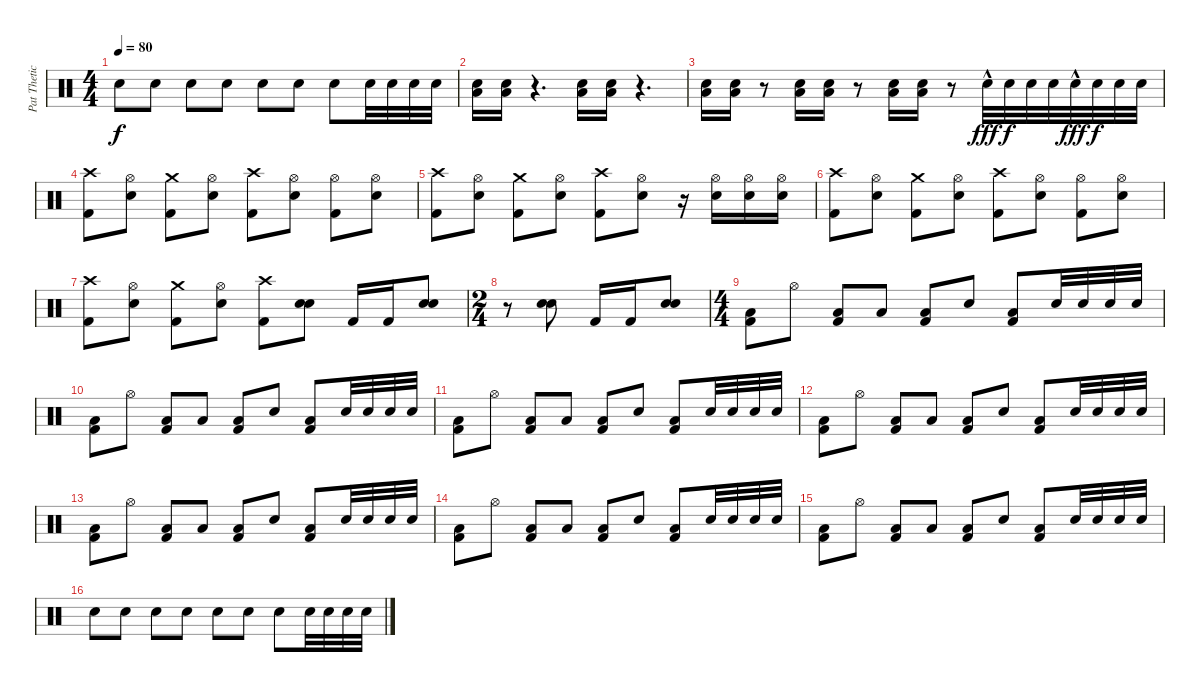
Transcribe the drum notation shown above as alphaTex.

\track ("Pat Thetic" "Pat Thetic") {instrument percussion}
\staff {score}
\articulation defaults
\ts (4 4)
\tempo 80
\clef neutral
\ks c "Electric Snare (hit)".8{dy f} "Electric Snare (hit)".8 "Electric Snare (hit)".8 "Electric Snare (hit)".8 "Electric Snare (hit)".8 "Electric Snare (hit)".8 "Electric Snare (hit)".8 "Electric Snare (hit)".32 "Electric Snare (hit)".32 "Electric Snare (hit)".32 "Electric Snare (hit)".32
|
("Electric Snare (hit)" "Low Floor Tom (hit)").16 ("Electric Snare (hit)" "Low Floor Tom (hit)").16 r.4{d} ("Electric Snare (hit)" "Low Floor Tom (hit)").16 ("Electric Snare (hit)" "Low Floor Tom (hit)").16 r.4{d} |
("Electric Snare (hit)" "Low Floor Tom (hit)").16 ("Electric Snare (hit)" "Low Floor Tom (hit)").16 r.8 ("Electric Snare (hit)" "Low Floor Tom (hit)").16 ("Electric Snare (hit)" "Low Floor Tom (hit)").16 r.8 ("Electric Snare (hit)" "Low Floor Tom (hit)").16 ("Electric Snare (hit)" "Low Floor Tom (hit)").16 r.8 "Electric Snare (hit)"{hac}.32{dy fff} "Electric Snare (hit)".32{dy f} "Electric Snare (hit)".32 "Electric Snare (hit)".32 "Electric Snare (hit)"{hac}.32{dy fff} "Electric Snare (hit)".32{dy f} "Electric Snare (hit)".32 "Electric Snare (hit)".32 |
("Crash high (hit)" "Kick (hit) 2").8 ("Hi-Hat (open)" "Electric Snare (hit)").8 ("Crash medium (hit)" "Kick (hit) 2").8 ("Hi-Hat (open)" "Electric Snare (hit)").8 ("Crash high (hit)" "Kick (hit) 2").8 ("Hi-Hat (open)" "Electric Snare (hit)").8 ("Hi-Hat (open)" "Kick (hit) 2").8 ("Hi-Hat (open)" "Electric Snare (hit)").8 |
("Crash high (hit)" "Kick (hit) 2").8 ("Hi-Hat (open)" "Electric Snare (hit)").8 ("Crash medium (hit)" "Kick (hit) 2").8 ("Hi-Hat (open)" "Electric Snare (hit)").8 ("Crash high (hit)" "Kick (hit) 2").8 ("Hi-Hat (open)" "Electric Snare (hit)").8 r.16 ("Hi-Hat (open)" "Electric Snare (hit)").16 ("Hi-Hat (open)" "Electric Snare (hit)").16 ("Hi-Hat (open)" "Electric Snare (hit)").16 |
("Crash high (hit)" "Kick (hit) 2").8 ("Hi-Hat (open)" "Electric Snare (hit)").8 ("Crash medium (hit)" "Kick (hit) 2").8 ("Hi-Hat (open)" "Electric Snare (hit)").8 ("Crash high (hit)" "Kick (hit) 2").8 ("Hi-Hat (open)" "Electric Snare (hit)").8 ("Hi-Hat (open)" "Kick (hit) 2").8 ("Hi-Hat (open)" "Electric Snare (hit)").8 |
("Crash high (hit)" "Kick (hit) 2").8 ("Hi-Hat (open)" "Electric Snare (hit)").8 ("Crash medium (hit)" "Kick (hit) 2").8 ("Hi-Hat (open)" "Electric Snare (hit)").8 ("Crash high (hit)" "Kick (hit) 2").8 ("Electric Snare (hit)" "Electric Snare (hit)").8 "Kick (hit) 2".16 "Kick (hit) 2".16 ("Electric Snare (hit)" "Electric Snare (hit)").8 |
\ts (2 4)
r.8 ("Electric Snare (hit)" "Electric Snare (hit)").8 "Kick (hit) 2".16 "Kick (hit) 2".16 ("Electric Snare (hit)" "Electric Snare (hit)").8 |
\ts (4 4)
("Low Floor Tom (hit)" "Kick (hit) 2").8 "Hi-Hat (open)".8 ("Low Floor Tom (hit)" "Kick (hit) 2").8 "Low Tom (hit)".8 ("Low Floor Tom (hit)" "Kick (hit) 2").8 "Electric Snare (hit)".8 ("Low Floor Tom (hit)" "Kick (hit) 2").8 "Electric Snare (hit)".32 "Electric Snare (hit)".32 "Electric Snare (hit)".32 "Electric Snare (hit)".32 |
("Low Floor Tom (hit)" "Kick (hit) 2").8 "Hi-Hat (open)".8 ("Low Floor Tom (hit)" "Kick (hit) 2").8 "Low Tom (hit)".8 ("Low Floor Tom (hit)" "Kick (hit) 2").8 "Electric Snare (hit)".8 ("Low Floor Tom (hit)" "Kick (hit) 2").8 "Electric Snare (hit)".32 "Electric Snare (hit)".32 "Electric Snare (hit)".32 "Electric Snare (hit)".32 |
("Low Floor Tom (hit)" "Kick (hit) 2").8 "Hi-Hat (open)".8 ("Low Floor Tom (hit)" "Kick (hit) 2").8 "Low Tom (hit)".8 ("Low Floor Tom (hit)" "Kick (hit) 2").8 "Electric Snare (hit)".8 ("Low Floor Tom (hit)" "Kick (hit) 2").8 "Electric Snare (hit)".32 "Electric Snare (hit)".32 "Electric Snare (hit)".32 "Electric Snare (hit)".32 |
("Low Floor Tom (hit)" "Kick (hit) 2").8 "Hi-Hat (open)".8 ("Low Floor Tom (hit)" "Kick (hit) 2").8 "Low Tom (hit)".8 ("Low Floor Tom (hit)" "Kick (hit) 2").8 "Electric Snare (hit)".8 ("Low Floor Tom (hit)" "Kick (hit) 2").8 "Electric Snare (hit)".32 "Electric Snare (hit)".32 "Electric Snare (hit)".32 "Electric Snare (hit)".32 |
("Low Floor Tom (hit)" "Kick (hit) 2").8 "Hi-Hat (open)".8 ("Low Floor Tom (hit)" "Kick (hit) 2").8 "Low Tom (hit)".8 ("Low Floor Tom (hit)" "Kick (hit) 2").8 "Electric Snare (hit)".8 ("Low Floor Tom (hit)" "Kick (hit) 2").8 "Electric Snare (hit)".32 "Electric Snare (hit)".32 "Electric Snare (hit)".32 "Electric Snare (hit)".32 |
("Low Floor Tom (hit)" "Kick (hit) 2").8 "Hi-Hat (open)".8 ("Low Floor Tom (hit)" "Kick (hit) 2").8 "Low Tom (hit)".8 ("Low Floor Tom (hit)" "Kick (hit) 2").8 "Electric Snare (hit)".8 ("Low Floor Tom (hit)" "Kick (hit) 2").8 "Electric Snare (hit)".32 "Electric Snare (hit)".32 "Electric Snare (hit)".32 "Electric Snare (hit)".32 |
("Low Floor Tom (hit)" "Kick (hit) 2").8 "Hi-Hat (open)".8 ("Low Floor Tom (hit)" "Kick (hit) 2").8 "Low Tom (hit)".8 ("Low Floor Tom (hit)" "Kick (hit) 2").8 "Electric Snare (hit)".8 ("Low Floor Tom (hit)" "Kick (hit) 2").8 "Electric Snare (hit)".32 "Electric Snare (hit)".32 "Electric Snare (hit)".32 "Electric Snare (hit)".32 |
"Electric Snare (hit)".8 "Electric Snare (hit)".8 "Electric Snare (hit)".8 "Electric Snare (hit)".8 "Electric Snare (hit)".8 "Electric Snare (hit)".8 "Electric Snare (hit)".8 "Electric Snare (hit)".32 "Electric Snare (hit)".32 "Electric Snare (hit)".32 "Electric Snare (hit)".32
